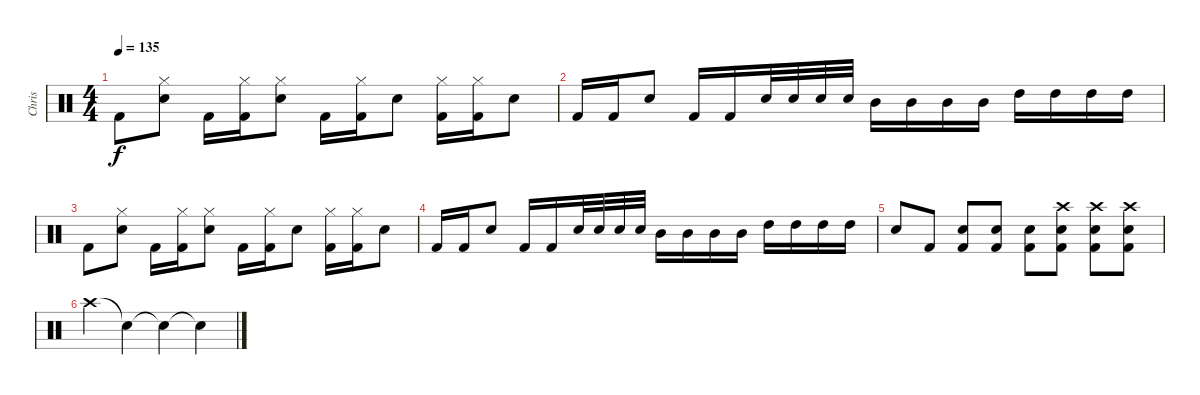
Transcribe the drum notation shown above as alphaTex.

\track ("Chris" "Chris") {instrument percussion}
\staff {score}
\articulation defaults
\ts (4 4)
\tempo 135
\clef neutral
\ks c "Kick (hit) 2".8{dy f}
("Hi-Hat (closed)" "Snare (hit) 2").8 "Kick (hit) 2".16 ("Hi-Hat (closed)" "Kick (hit) 2").16 ("Hi-Hat (closed)" "Snare (hit) 2").8 "Kick (hit) 2".16 ("Hi-Hat (closed)" "Kick (hit) 2").16 "Snare (hit) 2".8 ("Hi-Hat (closed)" "Kick (hit) 2").16 ("Hi-Hat (closed)" "Kick (hit) 2").16 "Snare (hit) 2".8 |
"Kick (hit) 2".16 "Kick (hit) 2".16 "Snare (hit) 2".8 "Kick (hit) 2".16 "Kick (hit) 2".16 "Snare (hit) 2".32 "Snare (hit) 2".32 "Snare (hit) 2".32 "Snare (hit) 2".32 "Mid Tom (hit)".16 "Mid Tom (hit)".16 "Mid Tom (hit)".16 "Mid Tom (hit)".16 "High Tom (hit)".16 "High Tom (hit)".16 "High Tom (hit)".16 "High Tom (hit)".16 |
"Kick (hit) 2".8 ("Hi-Hat (closed)" "Snare (hit) 2").8 "Kick (hit) 2".16 ("Hi-Hat (closed)" "Kick (hit) 2").16 ("Hi-Hat (closed)" "Snare (hit) 2").8 "Kick (hit) 2".16 ("Hi-Hat (closed)" "Kick (hit) 2").16 "Snare (hit) 2".8 ("Hi-Hat (closed)" "Kick (hit) 2").16 ("Hi-Hat (closed)" "Kick (hit) 2").16 "Snare (hit) 2".8 |
"Kick (hit) 2".16 "Kick (hit) 2".16 "Snare (hit) 2".8 "Kick (hit) 2".16 "Kick (hit) 2".16 "Snare (hit) 2".32 "Snare (hit) 2".32 "Snare (hit) 2".32 "Snare (hit) 2".32 "Mid Tom (hit)".16 "Mid Tom (hit)".16 "Mid Tom (hit)".16 "Mid Tom (hit)".16 "High Tom (hit)".16 "High Tom (hit)".16 "High Tom (hit)".16 "High Tom (hit)".16 |
"Snare (hit) 2".8 "Kick (hit) 2".8 ("Snare (hit) 2" "Kick (hit) 2").8 ("Snare (hit) 2" "Kick (hit) 2").8 ("Snare (hit) 2" "Kick (hit) 2").8 ("Snare (hit) 2" "Kick (hit) 2" "Crash high (hit)").8 ("Snare (hit) 2" "Kick (hit) 2" "Crash high (hit)").8 ("Snare (hit) 2" "Kick (hit) 2" "Crash high (hit)").8 |
"Crash high (hit)".4 "Snare (hit)"{t}.4 "Snare (hit)"{t}.4 "Snare (hit)"{t}.4
